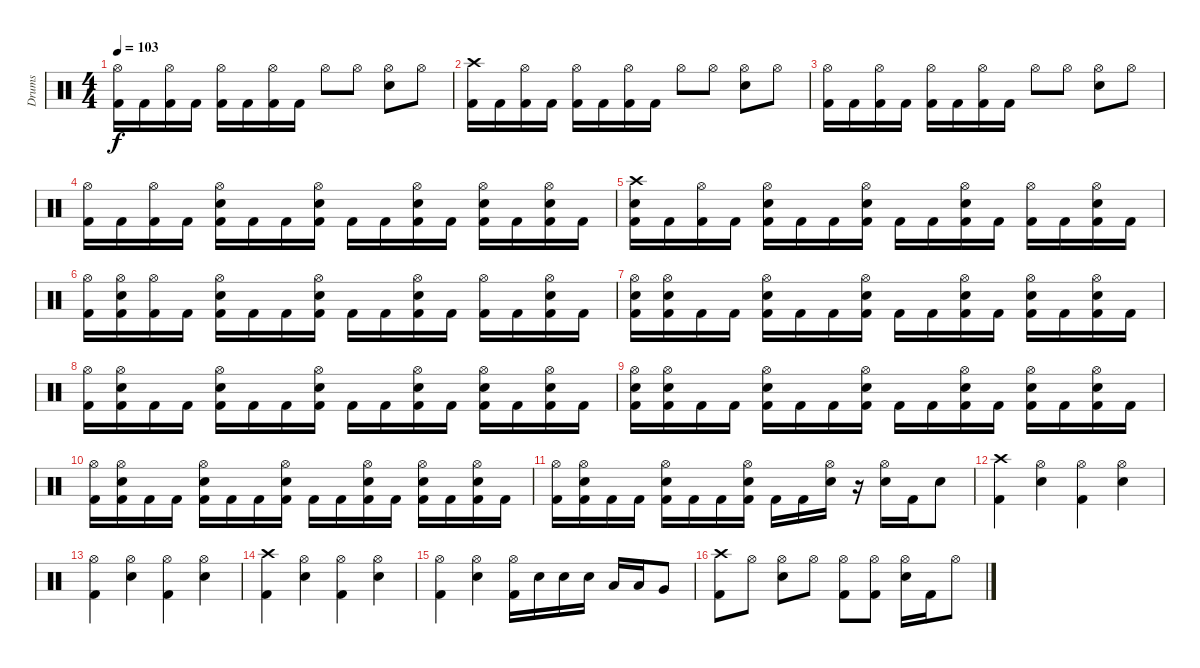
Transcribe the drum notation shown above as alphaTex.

\track ("Drums" "Drums") {instrument percussion}
\staff {score}
\articulation defaults
\ts (4 4)
\tempo 103
\clef neutral
\ks c
("Hi-Hat (open)" "Kick (hit) 2").16{dy f} "Kick (hit) 2".16 ("Hi-Hat (open)" "Kick (hit) 2").16 "Kick (hit) 2".16 ("Hi-Hat (open)" "Kick (hit) 2").16 "Kick (hit) 2".16 ("Hi-Hat (open)" "Kick (hit) 2").16 "Kick (hit) 2".16 "Hi-Hat (open)".8 "Hi-Hat (open)".8 ("Hi-Hat (open)" "Electric Snare (hit)").8 "Hi-Hat (open)".8 |
("Crash high (hit)" "Kick (hit) 2").16 "Kick (hit) 2".16 ("Hi-Hat (open)" "Kick (hit) 2").16 "Kick (hit) 2".16 ("Hi-Hat (open)" "Kick (hit) 2").16 "Kick (hit) 2".16 ("Hi-Hat (open)" "Kick (hit) 2").16 "Kick (hit) 2".16 "Hi-Hat (open)".8 "Hi-Hat (open)".8 ("Hi-Hat (open)" "Electric Snare (hit)").8 "Hi-Hat (open)".8 |
("Hi-Hat (open)" "Kick (hit) 2").16 "Kick (hit) 2".16 ("Hi-Hat (open)" "Kick (hit) 2").16 "Kick (hit) 2".16 ("Hi-Hat (open)" "Kick (hit) 2").16 "Kick (hit) 2".16 ("Hi-Hat (open)" "Kick (hit) 2").16 "Kick (hit) 2".16 "Hi-Hat (open)".8 "Hi-Hat (open)".8 ("Hi-Hat (open)" "Electric Snare (hit)").8 "Hi-Hat (open)".8 |
("Hi-Hat (open)" "Kick (hit) 2").16 "Kick (hit) 2".16 ("Hi-Hat (open)" "Kick (hit) 2").16 "Kick (hit) 2".16 ("Hi-Hat (open)" "Electric Snare (hit)" "Kick (hit) 2").16 "Kick (hit) 2".16 "Kick (hit) 2".16 ("Hi-Hat (open)" "Electric Snare (hit)" "Kick (hit) 2").16 "Kick (hit) 2".16 "Kick (hit) 2".16 ("Hi-Hat (open)" "Electric Snare (hit)" "Kick (hit) 2").16 "Kick (hit) 2".16 ("Hi-Hat (open)" "Electric Snare (hit)" "Kick (hit) 2").16 "Kick (hit) 2".16 ("Hi-Hat (open)" "Electric Snare (hit)" "Kick (hit) 2").16 "Kick (hit) 2".16 |
("Crash high (hit)" "Electric Snare (hit)" "Kick (hit) 2").16 "Kick (hit) 2".16 ("Hi-Hat (open)" "Kick (hit) 2").16 "Kick (hit) 2".16 ("Hi-Hat (open)" "Electric Snare (hit)" "Kick (hit) 2").16 "Kick (hit) 2".16 "Kick (hit) 2".16 ("Hi-Hat (open)" "Electric Snare (hit)" "Kick (hit) 2").16 "Kick (hit) 2".16 "Kick (hit) 2".16 ("Hi-Hat (open)" "Electric Snare (hit)" "Kick (hit) 2").16 "Kick (hit) 2".16 ("Hi-Hat (open)" "Kick (hit) 2").16 "Kick (hit) 2".16 ("Hi-Hat (open)" "Electric Snare (hit)" "Kick (hit) 2").16 "Kick (hit) 2".16 |
("Hi-Hat (open)" "Kick (hit) 2").16 ("Hi-Hat (open)" "Electric Snare (hit)" "Kick (hit) 2").16 ("Hi-Hat (open)" "Kick (hit) 2").16 "Kick (hit) 2".16 ("Hi-Hat (open)" "Electric Snare (hit)" "Kick (hit) 2").16 "Kick (hit) 2".16 "Kick (hit) 2".16 ("Hi-Hat (open)" "Electric Snare (hit)" "Kick (hit) 2").16 "Kick (hit) 2".16 "Kick (hit) 2".16 ("Hi-Hat (open)" "Electric Snare (hit)" "Kick (hit) 2").16 "Kick (hit) 2".16 ("Hi-Hat (open)" "Kick (hit) 2").16 "Kick (hit) 2".16 ("Hi-Hat (open)" "Electric Snare (hit)" "Kick (hit) 2").16 "Kick (hit) 2".16 |
("Hi-Hat (open)" "Electric Snare (hit)" "Kick (hit) 2").16 ("Hi-Hat (open)" "Electric Snare (hit)" "Kick (hit) 2").16 "Kick (hit) 2".16 "Kick (hit) 2".16 ("Hi-Hat (open)" "Electric Snare (hit)" "Kick (hit) 2").16 "Kick (hit) 2".16 "Kick (hit) 2".16 ("Hi-Hat (open)" "Electric Snare (hit)" "Kick (hit) 2").16 "Kick (hit) 2".16 "Kick (hit) 2".16 ("Hi-Hat (open)" "Electric Snare (hit)" "Kick (hit) 2").16 "Kick (hit) 2".16 ("Hi-Hat (open)" "Electric Snare (hit)" "Kick (hit) 2").16 "Kick (hit) 2".16 ("Hi-Hat (open)" "Electric Snare (hit)" "Kick (hit) 2").16 "Kick (hit) 2".16 |
("Hi-Hat (open)" "Kick (hit) 2").16 ("Hi-Hat (open)" "Electric Snare (hit)" "Kick (hit) 2").16 "Kick (hit) 2".16 "Kick (hit) 2".16 ("Hi-Hat (open)" "Electric Snare (hit)" "Kick (hit) 2").16 "Kick (hit) 2".16 "Kick (hit) 2".16 ("Hi-Hat (open)" "Electric Snare (hit)" "Kick (hit) 2").16 "Kick (hit) 2".16 "Kick (hit) 2".16 ("Hi-Hat (open)" "Electric Snare (hit)" "Kick (hit) 2").16 "Kick (hit) 2".16 ("Hi-Hat (open)" "Electric Snare (hit)" "Kick (hit) 2").16 "Kick (hit) 2".16 ("Hi-Hat (open)" "Electric Snare (hit)" "Kick (hit) 2").16 "Kick (hit) 2".16 |
("Hi-Hat (open)" "Electric Snare (hit)" "Kick (hit) 2").16 ("Hi-Hat (open)" "Electric Snare (hit)" "Kick (hit) 2").16 "Kick (hit) 2".16 "Kick (hit) 2".16 ("Hi-Hat (open)" "Electric Snare (hit)" "Kick (hit) 2").16 "Kick (hit) 2".16 "Kick (hit) 2".16 ("Hi-Hat (open)" "Electric Snare (hit)" "Kick (hit) 2").16 "Kick (hit) 2".16 "Kick (hit) 2".16 ("Hi-Hat (open)" "Electric Snare (hit)" "Kick (hit) 2").16 "Kick (hit) 2".16 ("Hi-Hat (open)" "Electric Snare (hit)" "Kick (hit) 2").16 "Kick (hit) 2".16 ("Hi-Hat (open)" "Electric Snare (hit)" "Kick (hit) 2").16 "Kick (hit) 2".16 |
("Hi-Hat (open)" "Kick (hit) 2").16 ("Hi-Hat (open)" "Electric Snare (hit)" "Kick (hit) 2").16 "Kick (hit) 2".16 "Kick (hit) 2".16 ("Hi-Hat (open)" "Electric Snare (hit)" "Kick (hit) 2").16 "Kick (hit) 2".16 "Kick (hit) 2".16 ("Hi-Hat (open)" "Electric Snare (hit)" "Kick (hit) 2").16 "Kick (hit) 2".16 "Kick (hit) 2".16 ("Hi-Hat (open)" "Electric Snare (hit)" "Kick (hit) 2").16 "Kick (hit) 2".16 ("Hi-Hat (open)" "Electric Snare (hit)" "Kick (hit) 2").16 "Kick (hit) 2".16 ("Hi-Hat (open)" "Electric Snare (hit)" "Kick (hit) 2").16 "Kick (hit) 2".16 |
("Hi-Hat (open)" "Kick (hit) 2").16 ("Hi-Hat (open)" "Electric Snare (hit)" "Kick (hit) 2").16 "Kick (hit) 2".16 "Kick (hit) 2".16 ("Hi-Hat (open)" "Electric Snare (hit)" "Kick (hit) 2").16 "Kick (hit) 2".16 "Kick (hit) 2".16 ("Hi-Hat (open)" "Electric Snare (hit)" "Kick (hit) 2").16 "Kick (hit) 2".16 "Kick (hit) 2".16 ("Hi-Hat (open)" "Electric Snare (hit)").16 r.16 ("Hi-Hat (open)" "Electric Snare (hit)").16 "Kick (hit) 2".16 "Electric Snare (hit)".8 |
("Crash high (hit)" "Kick (hit) 2").4 ("Hi-Hat (open)" "Electric Snare (hit)").4 ("Hi-Hat (open)" "Kick (hit) 2").4 ("Hi-Hat (open)" "Electric Snare (hit)").4 |
("Hi-Hat (open)" "Kick (hit) 2").4 ("Hi-Hat (open)" "Electric Snare (hit)").4 ("Hi-Hat (open)" "Kick (hit) 2").4 ("Hi-Hat (open)" "Electric Snare (hit)").4 |
("Crash high (hit)" "Kick (hit) 2").4 ("Hi-Hat (open)" "Electric Snare (hit)").4 ("Hi-Hat (open)" "Kick (hit) 2").4 ("Hi-Hat (open)" "Electric Snare (hit)").4 |
("Hi-Hat (open)" "Kick (hit) 2").4 ("Hi-Hat (open)" "Electric Snare (hit)").4 ("Hi-Hat (open)" "Kick (hit) 2").16 "Electric Snare (hit)".16 "Electric Snare (hit)".16 "Electric Snare (hit)".16 "Low Tom (hit)".16 "Low Tom (hit)".16 "Very Low Tom (hit)".8 |
("Crash high (hit)" "Kick (hit) 2").8 "Hi-Hat (open)".8 ("Hi-Hat (open)" "Electric Snare (hit)").8 "Hi-Hat (open)".8 ("Hi-Hat (open)" "Kick (hit) 2").8 ("Hi-Hat (open)" "Kick (hit) 2").8 ("Hi-Hat (open)" "Electric Snare (hit)").16 "Kick (hit) 2".16 "Hi-Hat (open)".8
